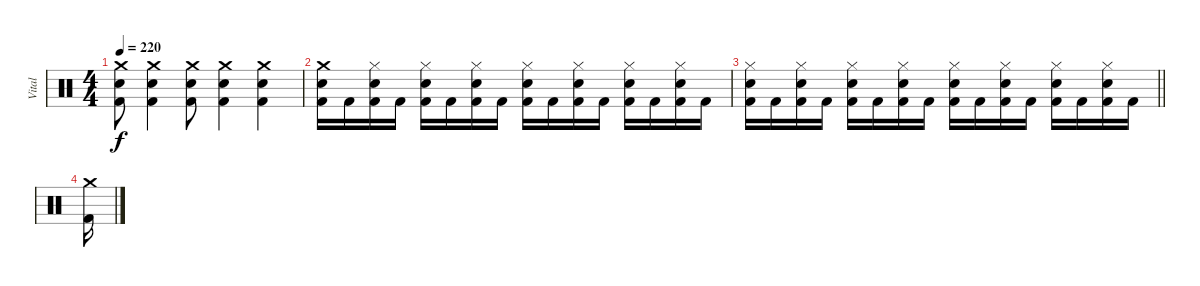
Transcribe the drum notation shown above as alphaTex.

\track ("Vital" "Vital") {instrument percussion}
\staff {score}
\articulation defaults
\ts (4 4)
\tempo 220
\clef neutral
\ks c
("Crash medium (hit)" "Snare (hit) 2" "Kick (hit) 2").8{dy f} ("Crash medium (hit)" "Snare (hit) 2" "Kick (hit) 2").4 ("Crash medium (hit)" "Snare (hit) 2" "Kick (hit) 2").8 ("Crash medium (hit)" "Snare (hit) 2" "Kick (hit) 2").4 ("Crash medium (hit)" "Snare (hit) 2" "Kick (hit) 2").4 |
("Crash medium (hit)" "Snare (hit) 2" "Kick (hit) 2").16 "Kick (hit) 2".16 ("Hi-Hat (closed)" "Snare (hit) 2" "Kick (hit) 2").16 "Kick (hit) 2".16 ("Hi-Hat (closed)" "Snare (hit) 2" "Kick (hit) 2").16 "Kick (hit) 2".16 ("Hi-Hat (closed)" "Snare (hit) 2" "Kick (hit) 2").16 "Kick (hit) 2".16 ("Hi-Hat (closed)" "Snare (hit) 2" "Kick (hit) 2").16 "Kick (hit) 2".16 ("Hi-Hat (closed)" "Snare (hit) 2" "Kick (hit) 2").16 "Kick (hit) 2".16 ("Hi-Hat (closed)" "Snare (hit) 2" "Kick (hit) 2").16 "Kick (hit) 2".16 ("Hi-Hat (closed)" "Snare (hit) 2" "Kick (hit) 2").16 "Kick (hit) 2".16 |
\barLineRight lightlight
("Hi-Hat (closed)" "Snare (hit) 2" "Kick (hit) 2").16 "Kick (hit) 2".16 ("Hi-Hat (closed)" "Snare (hit) 2" "Kick (hit) 2").16 "Kick (hit) 2".16 ("Hi-Hat (closed)" "Snare (hit) 2" "Kick (hit) 2").16 "Kick (hit) 2".16 ("Hi-Hat (closed)" "Snare (hit) 2" "Kick (hit) 2").16 "Kick (hit) 2".16 ("Hi-Hat (closed)" "Snare (hit) 2" "Kick (hit) 2").16 "Kick (hit) 2".16 ("Hi-Hat (closed)" "Snare (hit) 2" "Kick (hit) 2").16 "Kick (hit) 2".16 ("Hi-Hat (closed)" "Snare (hit) 2" "Kick (hit) 2").16 "Kick (hit) 2".16 ("Hi-Hat (closed)" "Snare (hit) 2" "Kick (hit) 2").16 "Kick (hit) 2".16 |
("Crash medium (hit)" "Kick (hit) 2").16
